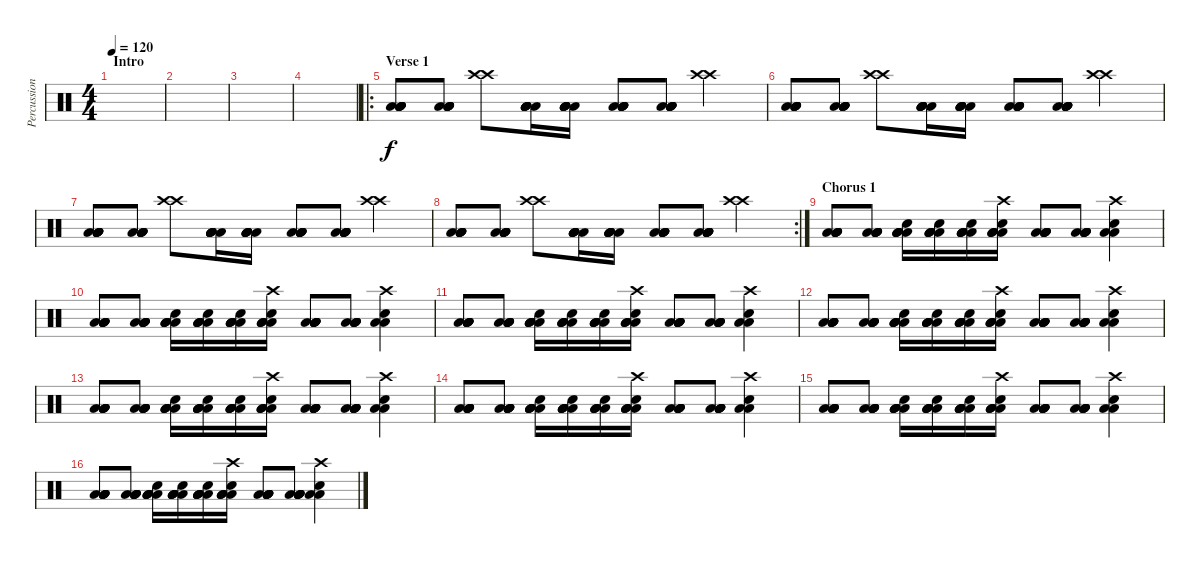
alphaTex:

\track ("Percussion" "Percussion") {instrument percussion}
\staff {score}
\articulation defaults
\ts (4 4)
\section ("" "Intro")
\tempo 120
\clef neutral
\ks c
|
|
|
|
\ro
\section ("" "Verse 1")
("Low Tom (hit)" "Low Tom (hit)" "Low Tom (hit)" "Low Tom (hit)" "Low Tom (hit)" "Low Tom (hit)").8 ("Low Tom (hit)" "Low Tom (hit)" "Low Tom (hit)" "Low Tom (hit)" "Low Tom (hit)" "Low Tom (hit)").8 ("Crash high (hit)" "Crash high (hit)").8 ("Low Tom (hit)" "Low Tom (hit)" "Low Tom (hit)" "Low Tom (hit)" "Low Tom (hit)" "Low Tom (hit)").16 ("Low Tom (hit)" "Low Tom (hit)" "Low Tom (hit)" "Low Tom (hit)" "Low Tom (hit)" "Low Tom (hit)").16 ("Low Tom (hit)" "Low Tom (hit)" "Low Tom (hit)" "Low Tom (hit)" "Low Tom (hit)" "Low Tom (hit)").8 ("Low Tom (hit)" "Low Tom (hit)" "Low Tom (hit)" "Low Tom (hit)" "Low Tom (hit)" "Low Tom (hit)").8 ("Crash high (hit)" "Crash high (hit)").4 |
("Low Tom (hit)" "Low Tom (hit)" "Low Tom (hit)" "Low Tom (hit)" "Low Tom (hit)" "Low Tom (hit)").8 ("Low Tom (hit)" "Low Tom (hit)" "Low Tom (hit)" "Low Tom (hit)" "Low Tom (hit)" "Low Tom (hit)").8 ("Crash high (hit)" "Crash high (hit)").8 ("Low Tom (hit)" "Low Tom (hit)" "Low Tom (hit)" "Low Tom (hit)" "Low Tom (hit)" "Low Tom (hit)").16 ("Low Tom (hit)" "Low Tom (hit)" "Low Tom (hit)" "Low Tom (hit)" "Low Tom (hit)" "Low Tom (hit)").16 ("Low Tom (hit)" "Low Tom (hit)" "Low Tom (hit)" "Low Tom (hit)" "Low Tom (hit)" "Low Tom (hit)").8 ("Low Tom (hit)" "Low Tom (hit)" "Low Tom (hit)" "Low Tom (hit)" "Low Tom (hit)" "Low Tom (hit)").8 ("Crash high (hit)" "Crash high (hit)").4 |
("Low Tom (hit)" "Low Tom (hit)" "Low Tom (hit)" "Low Tom (hit)" "Low Tom (hit)" "Low Tom (hit)").8 ("Low Tom (hit)" "Low Tom (hit)" "Low Tom (hit)" "Low Tom (hit)" "Low Tom (hit)" "Low Tom (hit)").8 ("Crash high (hit)" "Crash high (hit)").8 ("Low Tom (hit)" "Low Tom (hit)" "Low Tom (hit)" "Low Tom (hit)" "Low Tom (hit)" "Low Tom (hit)").16 ("Low Tom (hit)" "Low Tom (hit)" "Low Tom (hit)" "Low Tom (hit)" "Low Tom (hit)" "Low Tom (hit)").16 ("Low Tom (hit)" "Low Tom (hit)" "Low Tom (hit)" "Low Tom (hit)" "Low Tom (hit)" "Low Tom (hit)").8 ("Low Tom (hit)" "Low Tom (hit)" "Low Tom (hit)" "Low Tom (hit)" "Low Tom (hit)" "Low Tom (hit)").8 ("Crash high (hit)" "Crash high (hit)").4 |
\rc 2
("Low Tom (hit)" "Low Tom (hit)" "Low Tom (hit)" "Low Tom (hit)" "Low Tom (hit)" "Low Tom (hit)").8 ("Low Tom (hit)" "Low Tom (hit)" "Low Tom (hit)" "Low Tom (hit)" "Low Tom (hit)" "Low Tom (hit)").8 ("Crash high (hit)" "Crash high (hit)").8 ("Low Tom (hit)" "Low Tom (hit)" "Low Tom (hit)" "Low Tom (hit)" "Low Tom (hit)" "Low Tom (hit)").16 ("Low Tom (hit)" "Low Tom (hit)" "Low Tom (hit)" "Low Tom (hit)" "Low Tom (hit)" "Low Tom (hit)").16 ("Low Tom (hit)" "Low Tom (hit)" "Low Tom (hit)" "Low Tom (hit)" "Low Tom (hit)" "Low Tom (hit)").8 ("Low Tom (hit)" "Low Tom (hit)" "Low Tom (hit)" "Low Tom (hit)" "Low Tom (hit)" "Low Tom (hit)").8 ("Crash high (hit)" "Crash high (hit)").4 |
\section ("" "Chorus 1")
("Low Floor Tom (hit)" "Low Floor Tom (hit)" "Low Floor Tom (hit)" "Low Floor Tom (hit)" "Low Floor Tom (hit)" "Low Floor Tom (hit)").8 ("Low Floor Tom (hit)" "Low Floor Tom (hit)" "Low Floor Tom (hit)" "Low Floor Tom (hit)" "Low Floor Tom (hit)" "Low Floor Tom (hit)").8 ("Low Floor Tom (hit)" "Low Floor Tom (hit)" "Low Floor Tom (hit)" "Snare (hit) 2" "Low Floor Tom (hit)" "Low Floor Tom (hit)").16 ("Low Floor Tom (hit)" "Low Floor Tom (hit)" "Low Floor Tom (hit)" "Snare (hit) 2" "Low Floor Tom (hit)" "Low Floor Tom (hit)").16 ("Low Floor Tom (hit)" "Low Floor Tom (hit)" "Low Floor Tom (hit)" "Snare (hit) 2" "Low Floor Tom (hit)" "Low Floor Tom (hit)").16 ("Crash high (hit)" "Low Floor Tom (hit)" "Low Floor Tom (hit)" "Snare (hit) 2" "Low Floor Tom (hit)" "Low Floor Tom (hit)").16 ("Low Floor Tom (hit)" "Low Floor Tom (hit)" "Low Floor Tom (hit)" "Low Floor Tom (hit)" "Low Floor Tom (hit)" "Low Floor Tom (hit)").8 ("Low Floor Tom (hit)" "Low Floor Tom (hit)" "Low Floor Tom (hit)" "Low Floor Tom (hit)" "Low Floor Tom (hit)" "Low Floor Tom (hit)").8 ("Low Floor Tom (hit)" "Crash high (hit)" "Snare (hit) 2" "Low Floor Tom (hit)").4 |
("Low Floor Tom (hit)" "Low Floor Tom (hit)" "Low Floor Tom (hit)" "Low Floor Tom (hit)" "Low Floor Tom (hit)" "Low Floor Tom (hit)").8 ("Low Floor Tom (hit)" "Low Floor Tom (hit)" "Low Floor Tom (hit)" "Low Floor Tom (hit)" "Low Floor Tom (hit)" "Low Floor Tom (hit)").8 ("Low Floor Tom (hit)" "Low Floor Tom (hit)" "Low Floor Tom (hit)" "Snare (hit) 2" "Low Floor Tom (hit)" "Low Floor Tom (hit)").16 ("Low Floor Tom (hit)" "Low Floor Tom (hit)" "Low Floor Tom (hit)" "Snare (hit) 2" "Low Floor Tom (hit)" "Low Floor Tom (hit)").16 ("Low Floor Tom (hit)" "Low Floor Tom (hit)" "Low Floor Tom (hit)" "Snare (hit) 2" "Low Floor Tom (hit)" "Low Floor Tom (hit)").16 ("Crash high (hit)" "Low Floor Tom (hit)" "Low Floor Tom (hit)" "Snare (hit) 2" "Low Floor Tom (hit)" "Low Floor Tom (hit)").16 ("Low Floor Tom (hit)" "Low Floor Tom (hit)" "Low Floor Tom (hit)" "Low Floor Tom (hit)" "Low Floor Tom (hit)" "Low Floor Tom (hit)").8 ("Low Floor Tom (hit)" "Low Floor Tom (hit)" "Low Floor Tom (hit)" "Low Floor Tom (hit)" "Low Floor Tom (hit)" "Low Floor Tom (hit)").8 ("Low Floor Tom (hit)" "Crash high (hit)" "Snare (hit) 2" "Low Floor Tom (hit)").4 |
("Low Floor Tom (hit)" "Low Floor Tom (hit)" "Low Floor Tom (hit)" "Low Floor Tom (hit)" "Low Floor Tom (hit)" "Low Floor Tom (hit)").8 ("Low Floor Tom (hit)" "Low Floor Tom (hit)" "Low Floor Tom (hit)" "Low Floor Tom (hit)" "Low Floor Tom (hit)" "Low Floor Tom (hit)").8 ("Low Floor Tom (hit)" "Low Floor Tom (hit)" "Low Floor Tom (hit)" "Snare (hit) 2" "Low Floor Tom (hit)" "Low Floor Tom (hit)").16 ("Low Floor Tom (hit)" "Low Floor Tom (hit)" "Low Floor Tom (hit)" "Snare (hit) 2" "Low Floor Tom (hit)" "Low Floor Tom (hit)").16 ("Low Floor Tom (hit)" "Low Floor Tom (hit)" "Low Floor Tom (hit)" "Snare (hit) 2" "Low Floor Tom (hit)" "Low Floor Tom (hit)").16 ("Crash high (hit)" "Low Floor Tom (hit)" "Low Floor Tom (hit)" "Snare (hit) 2" "Low Floor Tom (hit)" "Low Floor Tom (hit)").16 ("Low Floor Tom (hit)" "Low Floor Tom (hit)" "Low Floor Tom (hit)" "Low Floor Tom (hit)" "Low Floor Tom (hit)" "Low Floor Tom (hit)").8 ("Low Floor Tom (hit)" "Low Floor Tom (hit)" "Low Floor Tom (hit)" "Low Floor Tom (hit)" "Low Floor Tom (hit)" "Low Floor Tom (hit)").8 ("Low Floor Tom (hit)" "Crash high (hit)" "Snare (hit) 2" "Low Floor Tom (hit)").4 |
("Low Floor Tom (hit)" "Low Floor Tom (hit)" "Low Floor Tom (hit)" "Low Floor Tom (hit)" "Low Floor Tom (hit)" "Low Floor Tom (hit)").8 ("Low Floor Tom (hit)" "Low Floor Tom (hit)" "Low Floor Tom (hit)" "Low Floor Tom (hit)" "Low Floor Tom (hit)" "Low Floor Tom (hit)").8 ("Low Floor Tom (hit)" "Low Floor Tom (hit)" "Low Floor Tom (hit)" "Snare (hit) 2" "Low Floor Tom (hit)" "Low Floor Tom (hit)").16 ("Low Floor Tom (hit)" "Low Floor Tom (hit)" "Low Floor Tom (hit)" "Snare (hit) 2" "Low Floor Tom (hit)" "Low Floor Tom (hit)").16 ("Low Floor Tom (hit)" "Low Floor Tom (hit)" "Low Floor Tom (hit)" "Snare (hit) 2" "Low Floor Tom (hit)" "Low Floor Tom (hit)").16 ("Crash high (hit)" "Low Floor Tom (hit)" "Low Floor Tom (hit)" "Snare (hit) 2" "Low Floor Tom (hit)" "Low Floor Tom (hit)").16 ("Low Floor Tom (hit)" "Low Floor Tom (hit)" "Low Floor Tom (hit)" "Low Floor Tom (hit)" "Low Floor Tom (hit)" "Low Floor Tom (hit)").8 ("Low Floor Tom (hit)" "Low Floor Tom (hit)" "Low Floor Tom (hit)" "Low Floor Tom (hit)" "Low Floor Tom (hit)" "Low Floor Tom (hit)").8 ("Low Floor Tom (hit)" "Crash high (hit)" "Snare (hit) 2" "Low Floor Tom (hit)").4 |
("Low Floor Tom (hit)" "Low Floor Tom (hit)" "Low Floor Tom (hit)" "Low Floor Tom (hit)" "Low Floor Tom (hit)" "Low Floor Tom (hit)").8 ("Low Floor Tom (hit)" "Low Floor Tom (hit)" "Low Floor Tom (hit)" "Low Floor Tom (hit)" "Low Floor Tom (hit)" "Low Floor Tom (hit)").8 ("Low Floor Tom (hit)" "Low Floor Tom (hit)" "Low Floor Tom (hit)" "Snare (hit) 2" "Low Floor Tom (hit)" "Low Floor Tom (hit)").16 ("Low Floor Tom (hit)" "Low Floor Tom (hit)" "Low Floor Tom (hit)" "Snare (hit) 2" "Low Floor Tom (hit)" "Low Floor Tom (hit)").16 ("Low Floor Tom (hit)" "Low Floor Tom (hit)" "Low Floor Tom (hit)" "Snare (hit) 2" "Low Floor Tom (hit)" "Low Floor Tom (hit)").16 ("Crash high (hit)" "Low Floor Tom (hit)" "Low Floor Tom (hit)" "Snare (hit) 2" "Low Floor Tom (hit)" "Low Floor Tom (hit)").16 ("Low Floor Tom (hit)" "Low Floor Tom (hit)" "Low Floor Tom (hit)" "Low Floor Tom (hit)" "Low Floor Tom (hit)" "Low Floor Tom (hit)").8 ("Low Floor Tom (hit)" "Low Floor Tom (hit)" "Low Floor Tom (hit)" "Low Floor Tom (hit)" "Low Floor Tom (hit)" "Low Floor Tom (hit)").8 ("Low Floor Tom (hit)" "Crash high (hit)" "Snare (hit) 2" "Low Floor Tom (hit)").4 |
("Low Floor Tom (hit)" "Low Floor Tom (hit)" "Low Floor Tom (hit)" "Low Floor Tom (hit)" "Low Floor Tom (hit)" "Low Floor Tom (hit)").8 ("Low Floor Tom (hit)" "Low Floor Tom (hit)" "Low Floor Tom (hit)" "Low Floor Tom (hit)" "Low Floor Tom (hit)" "Low Floor Tom (hit)").8 ("Low Floor Tom (hit)" "Low Floor Tom (hit)" "Low Floor Tom (hit)" "Snare (hit) 2" "Low Floor Tom (hit)" "Low Floor Tom (hit)").16 ("Low Floor Tom (hit)" "Low Floor Tom (hit)" "Low Floor Tom (hit)" "Snare (hit) 2" "Low Floor Tom (hit)" "Low Floor Tom (hit)").16 ("Low Floor Tom (hit)" "Low Floor Tom (hit)" "Low Floor Tom (hit)" "Snare (hit) 2" "Low Floor Tom (hit)" "Low Floor Tom (hit)").16 ("Crash high (hit)" "Low Floor Tom (hit)" "Low Floor Tom (hit)" "Snare (hit) 2" "Low Floor Tom (hit)" "Low Floor Tom (hit)").16 ("Low Floor Tom (hit)" "Low Floor Tom (hit)" "Low Floor Tom (hit)" "Low Floor Tom (hit)" "Low Floor Tom (hit)" "Low Floor Tom (hit)").8 ("Low Floor Tom (hit)" "Low Floor Tom (hit)" "Low Floor Tom (hit)" "Low Floor Tom (hit)" "Low Floor Tom (hit)" "Low Floor Tom (hit)").8 ("Low Floor Tom (hit)" "Crash high (hit)" "Snare (hit) 2" "Low Floor Tom (hit)").4 |
("Low Floor Tom (hit)" "Low Floor Tom (hit)" "Low Floor Tom (hit)" "Low Floor Tom (hit)" "Low Floor Tom (hit)" "Low Floor Tom (hit)").8 ("Low Floor Tom (hit)" "Low Floor Tom (hit)" "Low Floor Tom (hit)" "Low Floor Tom (hit)" "Low Floor Tom (hit)" "Low Floor Tom (hit)").8 ("Low Floor Tom (hit)" "Low Floor Tom (hit)" "Low Floor Tom (hit)" "Snare (hit) 2" "Low Floor Tom (hit)" "Low Floor Tom (hit)").16 ("Low Floor Tom (hit)" "Low Floor Tom (hit)" "Low Floor Tom (hit)" "Snare (hit) 2" "Low Floor Tom (hit)" "Low Floor Tom (hit)").16 ("Low Floor Tom (hit)" "Low Floor Tom (hit)" "Low Floor Tom (hit)" "Snare (hit) 2" "Low Floor Tom (hit)" "Low Floor Tom (hit)").16 ("Crash high (hit)" "Low Floor Tom (hit)" "Low Floor Tom (hit)" "Snare (hit) 2" "Low Floor Tom (hit)" "Low Floor Tom (hit)").16 ("Low Floor Tom (hit)" "Low Floor Tom (hit)" "Low Floor Tom (hit)" "Low Floor Tom (hit)" "Low Floor Tom (hit)" "Low Floor Tom (hit)").8 ("Low Floor Tom (hit)" "Low Floor Tom (hit)" "Low Floor Tom (hit)" "Low Floor Tom (hit)" "Low Floor Tom (hit)" "Low Floor Tom (hit)").8 ("Low Floor Tom (hit)" "Crash high (hit)" "Snare (hit) 2" "Low Floor Tom (hit)").4 |
("Low Floor Tom (hit)" "Low Floor Tom (hit)" "Low Floor Tom (hit)" "Low Floor Tom (hit)" "Low Floor Tom (hit)" "Low Floor Tom (hit)").8 ("Low Floor Tom (hit)" "Low Floor Tom (hit)" "Low Floor Tom (hit)" "Low Floor Tom (hit)" "Low Floor Tom (hit)" "Low Floor Tom (hit)").8 ("Low Floor Tom (hit)" "Low Floor Tom (hit)" "Low Floor Tom (hit)" "Snare (hit) 2" "Low Floor Tom (hit)" "Low Floor Tom (hit)").16 ("Low Floor Tom (hit)" "Low Floor Tom (hit)" "Low Floor Tom (hit)" "Snare (hit) 2" "Low Floor Tom (hit)" "Low Floor Tom (hit)").16 ("Low Floor Tom (hit)" "Low Floor Tom (hit)" "Low Floor Tom (hit)" "Snare (hit) 2" "Low Floor Tom (hit)" "Low Floor Tom (hit)").16 ("Crash high (hit)" "Low Floor Tom (hit)" "Low Floor Tom (hit)" "Snare (hit) 2" "Low Floor Tom (hit)" "Low Floor Tom (hit)").16 ("Low Floor Tom (hit)" "Low Floor Tom (hit)" "Low Floor Tom (hit)" "Low Floor Tom (hit)" "Low Floor Tom (hit)" "Low Floor Tom (hit)").8 ("Low Floor Tom (hit)" "Low Floor Tom (hit)" "Low Floor Tom (hit)" "Low Floor Tom (hit)" "Low Floor Tom (hit)" "Low Floor Tom (hit)").8 ("Low Floor Tom (hit)" "Crash high (hit)" "Snare (hit) 2" "Low Floor Tom (hit)").4
